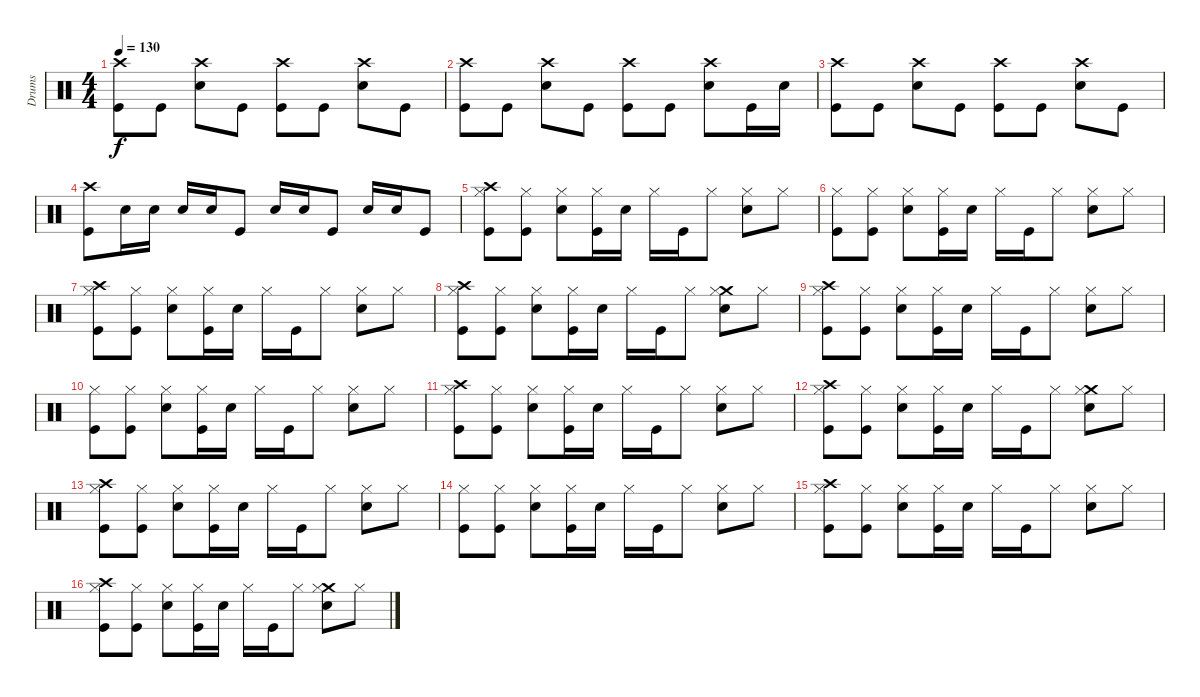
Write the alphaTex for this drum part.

\track ("Drums" "Drums") {instrument percussion}
\staff {score}
\articulation defaults
\ts (4 4)
\tempo 130
\clef neutral
\ks c
("Crash high (hit)" "Kick (hit)").8{dy f} "Kick (hit)".8 ("Crash high (hit)" "Snare (hit) 2").8 "Kick (hit)".8 ("Crash high (hit)" "Kick (hit)").8 "Kick (hit)".8 ("Crash high (hit)" "Snare (hit) 2").8 "Kick (hit)".8 |
("Crash high (hit)" "Kick (hit)").8 "Kick (hit)".8 ("Crash high (hit)" "Snare (hit) 2").8 "Kick (hit)".8 ("Crash high (hit)" "Kick (hit)").8 "Kick (hit)".8 ("Crash high (hit)" "Snare (hit) 2").8 "Kick (hit)".16 "Snare (hit) 2".16 |
("Crash high (hit)" "Kick (hit)").8 "Kick (hit)".8 ("Crash high (hit)" "Snare (hit) 2").8 "Kick (hit)".8 ("Crash high (hit)" "Kick (hit)").8 "Kick (hit)".8 ("Crash high (hit)" "Snare (hit) 2").8 "Kick (hit)".8 |
("Crash high (hit)" "Kick (hit)").8 "Snare (hit) 2".16 "Snare (hit) 2".16 "Snare (hit) 2".16 "Snare (hit) 2".16 "Kick (hit)".8 "Snare (hit) 2".16 "Snare (hit) 2".16 "Kick (hit)".8 "Snare (hit) 2".16 "Snare (hit) 2".16 "Kick (hit)".8 |
("Crash high (hit)" "Hi-Hat (closed)" "Kick (hit)").8 ("Hi-Hat (closed)" "Kick (hit)").8 ("Hi-Hat (closed)" "Snare (hit) 2").8 ("Hi-Hat (closed)" "Kick (hit)").16 "Snare (hit) 2".16 "Hi-Hat (closed)".16 "Kick (hit)".16 "Hi-Hat (closed)".8 ("Hi-Hat (closed)" "Snare (hit) 2").8 "Hi-Hat (closed)".8 |
("Hi-Hat (closed)" "Kick (hit)").8 ("Hi-Hat (closed)" "Kick (hit)").8 ("Hi-Hat (closed)" "Snare (hit) 2").8 ("Hi-Hat (closed)" "Kick (hit)").16 "Snare (hit) 2".16 "Hi-Hat (closed)".16 "Kick (hit)".16 "Hi-Hat (closed)".8 ("Hi-Hat (closed)" "Snare (hit) 2").8 "Hi-Hat (closed)".8 |
("Crash high (hit)" "Hi-Hat (closed)" "Kick (hit)").8 ("Hi-Hat (closed)" "Kick (hit)").8 ("Hi-Hat (closed)" "Snare (hit) 2").8 ("Hi-Hat (closed)" "Kick (hit)").16 "Snare (hit) 2".16 "Hi-Hat (closed)".16 "Kick (hit)".16 "Hi-Hat (closed)".8 ("Hi-Hat (closed)" "Snare (hit) 2").8 "Hi-Hat (closed)".8 |
("Crash high (hit)" "Hi-Hat (closed)" "Kick (hit)").8 ("Hi-Hat (closed)" "Kick (hit)").8 ("Hi-Hat (closed)" "Snare (hit) 2").8 ("Hi-Hat (closed)" "Kick (hit)").16 "Snare (hit) 2".16 "Hi-Hat (closed)".16 "Kick (hit)".16 "Hi-Hat (closed)".8 ("Crash medium (hit)" "Hi-Hat (closed)" "Snare (hit) 2").8 "Hi-Hat (closed)".8 |
("Crash high (hit)" "Hi-Hat (closed)" "Kick (hit)").8 ("Hi-Hat (closed)" "Kick (hit)").8 ("Hi-Hat (closed)" "Snare (hit) 2").8 ("Hi-Hat (closed)" "Kick (hit)").16 "Snare (hit) 2".16 "Hi-Hat (closed)".16 "Kick (hit)".16 "Hi-Hat (closed)".8 ("Hi-Hat (closed)" "Snare (hit) 2").8 "Hi-Hat (closed)".8 |
("Hi-Hat (closed)" "Kick (hit)").8 ("Hi-Hat (closed)" "Kick (hit)").8 ("Hi-Hat (closed)" "Snare (hit) 2").8 ("Hi-Hat (closed)" "Kick (hit)").16 "Snare (hit) 2".16 "Hi-Hat (closed)".16 "Kick (hit)".16 "Hi-Hat (closed)".8 ("Hi-Hat (closed)" "Snare (hit) 2").8 "Hi-Hat (closed)".8 |
("Crash high (hit)" "Hi-Hat (closed)" "Kick (hit)").8 ("Hi-Hat (closed)" "Kick (hit)").8 ("Hi-Hat (closed)" "Snare (hit) 2").8 ("Hi-Hat (closed)" "Kick (hit)").16 "Snare (hit) 2".16 "Hi-Hat (closed)".16 "Kick (hit)".16 "Hi-Hat (closed)".8 ("Hi-Hat (closed)" "Snare (hit) 2").8 "Hi-Hat (closed)".8 |
("Crash high (hit)" "Hi-Hat (closed)" "Kick (hit)").8 ("Hi-Hat (closed)" "Kick (hit)").8 ("Hi-Hat (closed)" "Snare (hit) 2").8 ("Hi-Hat (closed)" "Kick (hit)").16 "Snare (hit) 2".16 "Hi-Hat (closed)".16 "Kick (hit)".16 "Hi-Hat (closed)".8 ("Crash medium (hit)" "Hi-Hat (closed)" "Snare (hit) 2").8 "Hi-Hat (closed)".8 |
("Crash high (hit)" "Hi-Hat (closed)" "Kick (hit)").8 ("Hi-Hat (closed)" "Kick (hit)").8 ("Hi-Hat (closed)" "Snare (hit) 2").8 ("Hi-Hat (closed)" "Kick (hit)").16 "Snare (hit) 2".16 "Hi-Hat (closed)".16 "Kick (hit)".16 "Hi-Hat (closed)".8 ("Hi-Hat (closed)" "Snare (hit) 2").8 "Hi-Hat (closed)".8 |
("Hi-Hat (closed)" "Kick (hit)").8 ("Hi-Hat (closed)" "Kick (hit)").8 ("Hi-Hat (closed)" "Snare (hit) 2").8 ("Hi-Hat (closed)" "Kick (hit)").16 "Snare (hit) 2".16 "Hi-Hat (closed)".16 "Kick (hit)".16 "Hi-Hat (closed)".8 ("Hi-Hat (closed)" "Snare (hit) 2").8 "Hi-Hat (closed)".8 |
("Crash high (hit)" "Hi-Hat (closed)" "Kick (hit)").8 ("Hi-Hat (closed)" "Kick (hit)").8 ("Hi-Hat (closed)" "Snare (hit) 2").8 ("Hi-Hat (closed)" "Kick (hit)").16 "Snare (hit) 2".16 "Hi-Hat (closed)".16 "Kick (hit)".16 "Hi-Hat (closed)".8 ("Hi-Hat (closed)" "Snare (hit) 2").8 "Hi-Hat (closed)".8 |
("Crash high (hit)" "Hi-Hat (closed)" "Kick (hit)").8 ("Hi-Hat (closed)" "Kick (hit)").8 ("Hi-Hat (closed)" "Snare (hit) 2").8 ("Hi-Hat (closed)" "Kick (hit)").16 "Snare (hit) 2".16 "Hi-Hat (closed)".16 "Kick (hit)".16 "Hi-Hat (closed)".8 ("Crash medium (hit)" "Hi-Hat (closed)" "Snare (hit) 2").8 "Hi-Hat (closed)".8
